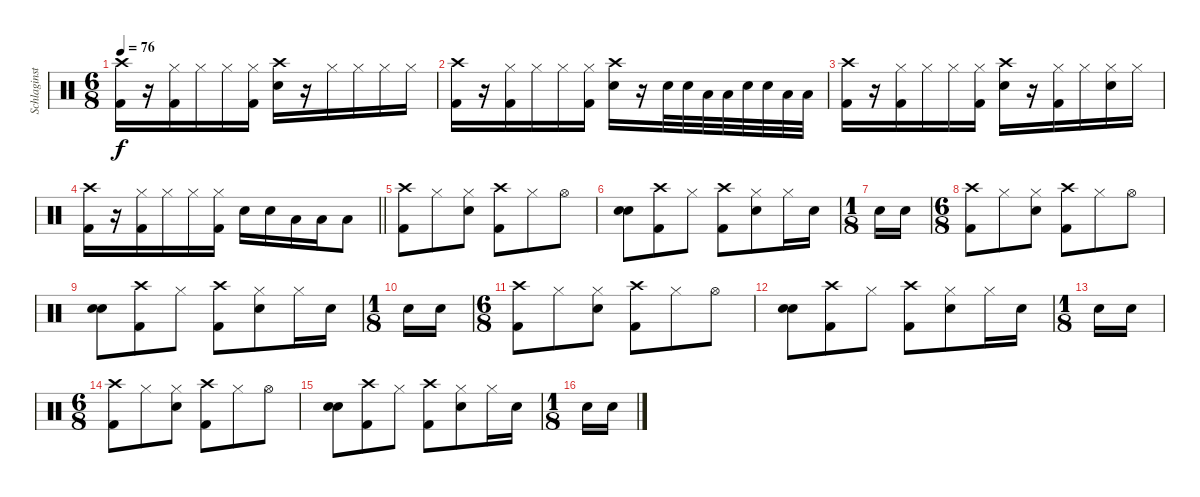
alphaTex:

\track ("Schlaginstrumente - Auswahl" "Schlaginst") {instrument percussion}
\staff {score}
\articulation defaults
\ts (6 8)
\tempo 76
\clef neutral
\ks c
("Crash high (hit)" "Kick (hit) 2").16{dy f} r.16 ("Hi-Hat (closed)" "Kick (hit) 2").16 "Hi-Hat (closed)".16 "Hi-Hat (closed)".16 ("Hi-Hat (closed)" "Kick (hit) 2").16 ("Crash high (hit)" "Snare (hit) 2").16 r.16 "Hi-Hat (closed)".16 "Hi-Hat (closed)".16 "Hi-Hat (closed)".16 "Hi-Hat (closed)".16 |
("Crash high (hit)" "Kick (hit) 2").16 r.16 ("Hi-Hat (closed)" "Kick (hit) 2").16 "Hi-Hat (closed)".16 "Hi-Hat (closed)".16 ("Hi-Hat (closed)" "Kick (hit) 2").16 ("Crash high (hit)" "Snare (hit) 2").16 r.16 "Snare (hit) 2".32 "Snare (hit) 2".32 "Low Tom (hit)".32 "Low Tom (hit)".32 "Snare (hit) 2".32 "Snare (hit) 2".32 "Low Tom (hit)".32 "Low Tom (hit)".32 |
("Crash high (hit)" "Kick (hit) 2").16 r.16 ("Hi-Hat (closed)" "Kick (hit) 2").16 "Hi-Hat (closed)".16 "Hi-Hat (closed)".16 ("Hi-Hat (closed)" "Kick (hit) 2").16 ("Crash high (hit)" "Snare (hit) 2").16 r.16 ("Hi-Hat (closed)" "Kick (hit) 2").16 "Hi-Hat (closed)".16 ("Hi-Hat (closed)" "Snare (hit) 2").16 "Hi-Hat (closed)".16 |
\barLineRight lightlight
("Crash high (hit)" "Kick (hit) 2").16 r.16 ("Hi-Hat (closed)" "Kick (hit) 2").16 "Hi-Hat (closed)".16 "Hi-Hat (closed)".16 ("Hi-Hat (closed)" "Kick (hit) 2").16 "Snare (hit) 2".16 "Snare (hit) 2".16 "Low Tom (hit)".16 "Low Tom (hit)".16 "Low Floor Tom (hit)".8 |
("Crash high (hit)" "Kick (hit) 2").8 "Hi-Hat (closed)".8 ("Hi-Hat (closed)" "Snare (hit) 2").8 ("Crash high (hit)" "Kick (hit) 2").8 "Hi-Hat (closed)".8 "Hi-Hat (open)".8 |
("Snare (hit) 2" "Snare (hit) 2").8{bd 240} ("Crash high (hit)" "Kick (hit) 2").8 "Hi-Hat (closed)".8 ("Crash high (hit)" "Kick (hit) 2").8 ("Hi-Hat (closed)" "Snare (hit) 2").8 "Hi-Hat (closed)".16 "Snare (hit) 2".16 |
\ts (1 8)
"Snare (hit) 2".16 "Snare (hit) 2".16 |
\ts (6 8)
("Crash high (hit)" "Kick (hit) 2").8 "Hi-Hat (closed)".8 ("Hi-Hat (closed)" "Snare (hit) 2").8 ("Crash high (hit)" "Kick (hit) 2").8 "Hi-Hat (closed)".8 "Hi-Hat (open)".8 |
("Snare (hit) 2" "Snare (hit) 2").8{bd 240} ("Crash high (hit)" "Kick (hit) 2").8 "Hi-Hat (closed)".8 ("Crash high (hit)" "Kick (hit) 2").8 ("Hi-Hat (closed)" "Snare (hit) 2").8 "Hi-Hat (closed)".16 "Snare (hit) 2".16 |
\ts (1 8)
"Snare (hit) 2".16 "Snare (hit) 2".16 |
\ts (6 8)
("Crash high (hit)" "Kick (hit) 2").8 "Hi-Hat (closed)".8 ("Hi-Hat (closed)" "Snare (hit) 2").8 ("Crash high (hit)" "Kick (hit) 2").8 "Hi-Hat (closed)".8 "Hi-Hat (open)".8 |
("Snare (hit) 2" "Snare (hit) 2").8{bd 240} ("Crash high (hit)" "Kick (hit) 2").8 "Hi-Hat (closed)".8 ("Crash high (hit)" "Kick (hit) 2").8 ("Hi-Hat (closed)" "Snare (hit) 2").8 "Hi-Hat (closed)".16 "Snare (hit) 2".16 |
\ts (1 8)
"Snare (hit) 2".16 "Snare (hit) 2".16 |
\ts (6 8)
("Crash high (hit)" "Kick (hit) 2").8 "Hi-Hat (closed)".8 ("Hi-Hat (closed)" "Snare (hit) 2").8 ("Crash high (hit)" "Kick (hit) 2").8 "Hi-Hat (closed)".8 "Hi-Hat (open)".8 |
("Snare (hit) 2" "Snare (hit) 2").8{bd 240} ("Crash high (hit)" "Kick (hit) 2").8 "Hi-Hat (closed)".8 ("Crash high (hit)" "Kick (hit) 2").8 ("Hi-Hat (closed)" "Snare (hit) 2").8 "Hi-Hat (closed)".16 "Snare (hit) 2".16 |
\ts (1 8)
"Snare (hit) 2".16 "Snare (hit) 2".16
